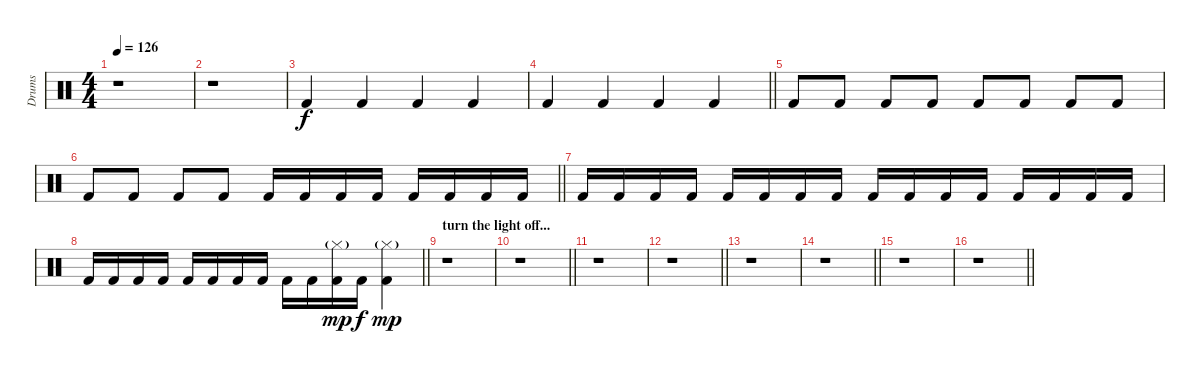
\track ("Drums" "Drums") {instrument percussion}
\staff {score}
\articulation defaults
\ts (4 4)
\section ("" "")
\tempo 126
\clef neutral
\ks c
r.1{dy f} |
r.1 |
"Kick (hit) 2".4 "Kick (hit) 2".4 "Kick (hit) 2".4 "Kick (hit) 2".4 |
\barLineRight lightlight "Kick (hit) 2".4 "Kick (hit) 2".4 "Kick (hit) 2".4 "Kick (hit) 2".4
|
"Kick (hit) 2".8 "Kick (hit) 2".8 "Kick (hit) 2".8 "Kick (hit) 2".8 "Kick (hit) 2".8 "Kick (hit) 2".8 "Kick (hit) 2".8 "Kick (hit) 2".8 |
\barLineRight lightlight "Kick (hit) 2".8 "Kick (hit) 2".8 "Kick (hit) 2".8 "Kick (hit) 2".8 "Kick (hit) 2".16 "Kick (hit) 2".16 "Kick (hit) 2".16 "Kick (hit) 2".16 "Kick (hit) 2".16 "Kick (hit) 2".16 "Kick (hit) 2".16 "Kick (hit) 2".16
|
"Kick (hit) 2".16 "Kick (hit) 2".16 "Kick (hit) 2".16 "Kick (hit) 2".16 "Kick (hit) 2".16 "Kick (hit) 2".16 "Kick (hit) 2".16 "Kick (hit) 2".16 "Kick (hit) 2".16 "Kick (hit) 2".16 "Kick (hit) 2".16 "Kick (hit) 2".16 "Kick (hit) 2".16 "Kick (hit) 2".16 "Kick (hit) 2".16 "Kick (hit) 2".16 |
\barLineRight lightlight "Kick (hit) 2".16 "Kick (hit) 2".16 "Kick (hit) 2".16 "Kick (hit) 2".16 "Kick (hit) 2".16 "Kick (hit) 2".16 "Kick (hit) 2".16 "Kick (hit) 2".16 "Kick (hit) 2".16 "Kick (hit) 2".16
("Hi-Hat (closed)"{g} "Kick (hit) 2").16{dy mp} "Kick (hit) 2".16{dy f} ("Hi-Hat (closed)"{g} "Kick (hit) 2").4{dy mp} |
\section ("" "turn the light off...")
r.1 |
\barLineRight lightlight
r.1 |
r.1 |
\barLineRight lightlight
r.1 |
r.1 |
\barLineRight lightlight
r.1 |
r.1 |
\barLineRight lightlight
r.1
